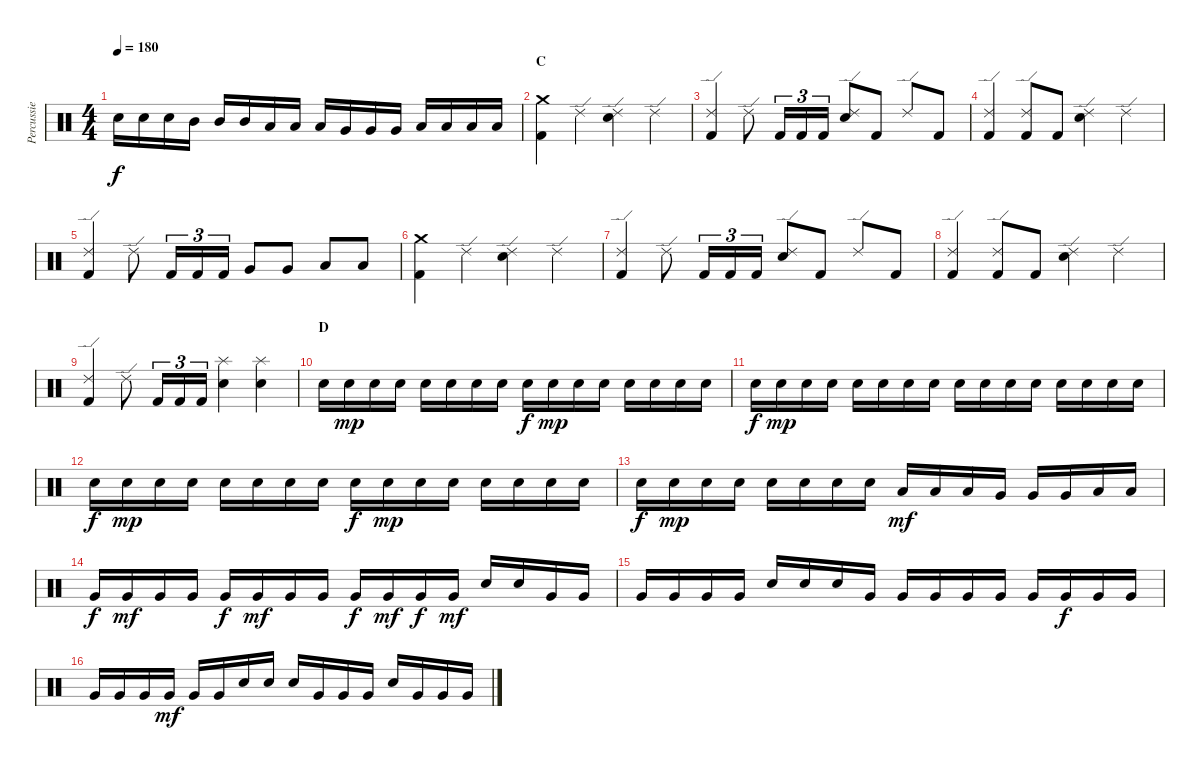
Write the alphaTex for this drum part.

\track ("Percussie" "Percussie") {instrument percussion}
\staff {score}
\articulation defaults
\ts (4 4)
\tempo 180
\clef neutral
\ks c "Electric Snare (hit)".16{dy f} "Electric Snare (hit)".16 "Electric Snare (hit)".16 "Mid Tom (hit)".16 "Mid Tom (hit)".16 "Mid Tom (hit)".16 "Low Tom (hit)".16 "Low Tom (hit)".16 "Low Tom (hit)".16 "Very Low Tom (hit)".16 "Very Low Tom (hit)".16 "Very Low Tom (hit)".16 "Low Floor Tom (hit)".16 "Low Floor Tom (hit)".16 "Low Floor Tom (hit)".16 "Low Floor Tom (hit)".16
|
\section ("" "C")
("Crash medium (hit)" "Kick (hit) 2").4 "Ride (edge) 2".4 ("Ride (edge) 2" "Electric Snare (hit)").4 "Ride (edge) 2".4 |
("Ride (edge) 2" "Kick (hit) 2").4 "Ride (edge) 2".8 "Kick (hit) 2".16{tu (3 2)} "Kick (hit) 2".16{tu (3 2)} "Kick (hit) 2".16{tu (3 2)} ("Ride (edge) 2" "Electric Snare (hit)").8 "Kick (hit) 2".8 "Ride (edge) 2".8 "Kick (hit) 2".8 |
("Ride (edge) 2" "Kick (hit) 2").4 ("Ride (edge) 2" "Kick (hit) 2").8 "Kick (hit) 2".8 ("Ride (edge) 2" "Electric Snare (hit)").4 "Ride (edge) 2".4 |
("Ride (edge) 2" "Kick (hit) 2").4 "Ride (edge) 2".8 "Kick (hit) 2".16{tu (3 2)} "Kick (hit) 2".16{tu (3 2)} "Kick (hit) 2".16{tu (3 2)} "Very Low Tom (hit)".8 "Very Low Tom (hit)".8 "Low Floor Tom (hit)".8 "Low Floor Tom (hit)".8 |
("Crash medium (hit)" "Kick (hit) 2").4 "Ride (edge) 2".4 ("Ride (edge) 2" "Electric Snare (hit)").4 "Ride (edge) 2".4 |
("Ride (edge) 2" "Kick (hit) 2").4 "Ride (edge) 2".8 "Kick (hit) 2".16{tu (3 2)} "Kick (hit) 2".16{tu (3 2)} "Kick (hit) 2".16{tu (3 2)} ("Ride (edge) 2" "Electric Snare (hit)").8 "Kick (hit) 2".8 "Ride (edge) 2".8 "Kick (hit) 2".8 |
("Ride (edge) 2" "Kick (hit) 2").4 ("Ride (edge) 2" "Kick (hit) 2").8 "Kick (hit) 2".8 ("Ride (edge) 2" "Electric Snare (hit)").4 "Ride (edge) 2".4 |
("Ride (edge) 2" "Kick (hit) 2").4 "Ride (edge) 2".8 "Kick (hit) 2".16{tu (3 2)} "Kick (hit) 2".16{tu (3 2)} "Kick (hit) 2".16{tu (3 2)} ("Splash (hit)" "Electric Snare (hit)").4 ("Splash (hit)" "Electric Snare (hit)").4 |
\section ("" "D")
"Electric Snare (hit)".16 "Electric Snare (hit)".16{dy mp} "Electric Snare (hit)".16 "Electric Snare (hit)".16 "Electric Snare (hit)".16 "Electric Snare (hit)".16 "Electric Snare (hit)".16 "Electric Snare (hit)".16 "Electric Snare (hit)".16{dy f} "Electric Snare (hit)".16{dy mp} "Electric Snare (hit)".16 "Electric Snare (hit)".16 "Electric Snare (hit)".16 "Electric Snare (hit)".16 "Electric Snare (hit)".16 "Electric Snare (hit)".16 |
"Electric Snare (hit)".16{dy f} "Electric Snare (hit)".16{dy mp} "Electric Snare (hit)".16 "Electric Snare (hit)".16 "Electric Snare (hit)".16 "Electric Snare (hit)".16 "Electric Snare (hit)".16 "Electric Snare (hit)".16 "Electric Snare (hit)".16 "Electric Snare (hit)".16 "Electric Snare (hit)".16 "Electric Snare (hit)".16 "Electric Snare (hit)".16 "Electric Snare (hit)".16 "Electric Snare (hit)".16 "Electric Snare (hit)".16 |
"Electric Snare (hit)".16{dy f} "Electric Snare (hit)".16{dy mp} "Electric Snare (hit)".16 "Electric Snare (hit)".16 "Electric Snare (hit)".16 "Electric Snare (hit)".16 "Electric Snare (hit)".16 "Electric Snare (hit)".16 "Electric Snare (hit)".16{dy f} "Electric Snare (hit)".16{dy mp} "Electric Snare (hit)".16 "Electric Snare (hit)".16 "Electric Snare (hit)".16 "Electric Snare (hit)".16 "Electric Snare (hit)".16 "Electric Snare (hit)".16 |
"Electric Snare (hit)".16{dy f} "Electric Snare (hit)".16{dy mp} "Electric Snare (hit)".16 "Electric Snare (hit)".16 "Electric Snare (hit)".16 "Electric Snare (hit)".16 "Electric Snare (hit)".16 "Electric Snare (hit)".16 "Low Tom (hit)".16{dy mf} "Low Tom (hit)".16 "Low Tom (hit)".16 "Very Low Tom (hit)".16 "Very Low Tom (hit)".16 "Very Low Tom (hit)".16 "Low Floor Tom (hit)".16 "Low Floor Tom (hit)".16 |
"Very Low Tom (hit)".16{dy f} "Very Low Tom (hit)".16{dy mf} "Very Low Tom (hit)".16 "Very Low Tom (hit)".16 "Very Low Tom (hit)".16{dy f} "Very Low Tom (hit)".16{dy mf} "Very Low Tom (hit)".16 "Very Low Tom (hit)".16 "Very Low Tom (hit)".16{dy f} "Very Low Tom (hit)".16{dy mf} "Very Low Tom (hit)".16{dy f} "Very Low Tom (hit)".16{dy mf} "Electric Snare (hit)".16 "Electric Snare (hit)".16 "Very Low Tom (hit)".16 "Very Low Tom (hit)".16 |
"Very Low Tom (hit)".16 "Very Low Tom (hit)".16 "Very Low Tom (hit)".16 "Very Low Tom (hit)".16 "Electric Snare (hit)".16 "Electric Snare (hit)".16 "Electric Snare (hit)".16 "Very Low Tom (hit)".16 "Very Low Tom (hit)".16 "Very Low Tom (hit)".16 "Very Low Tom (hit)".16 "Very Low Tom (hit)".16 "Very Low Tom (hit)".16 "Very Low Tom (hit)".16{dy f} "Very Low Tom (hit)".16 "Very Low Tom (hit)".16 |
"Very Low Tom (hit)".16 "Very Low Tom (hit)".16 "Very Low Tom (hit)".16 "Very Low Tom (hit)".16{dy mf} "Very Low Tom (hit)".16 "Very Low Tom (hit)".16 "Electric Snare (hit)".16 "Electric Snare (hit)".16 "Electric Snare (hit)".16 "Very Low Tom (hit)".16 "Very Low Tom (hit)".16 "Very Low Tom (hit)".16 "Electric Snare (hit)".16 "Very Low Tom (hit)".16 "Very Low Tom (hit)".16 "Very Low Tom (hit)".16
